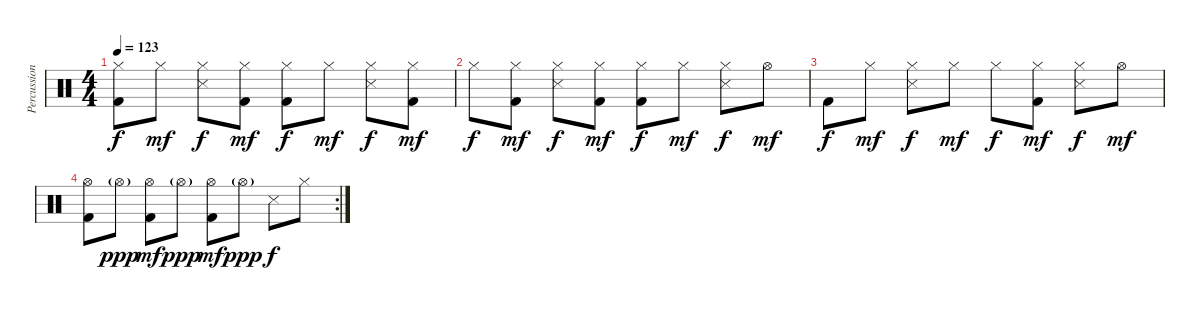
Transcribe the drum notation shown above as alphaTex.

\track ("Percussion" "Percussion") {instrument percussion}
\staff {score}
\articulation defaults
\ts (4 4)
\tempo 123
\clef neutral
\ks c
("Hi-Hat (closed)" "Kick (hit) 2").8{dy f} "Hi-Hat (closed)".8{dy mf} ("Hi-Hat (closed)" "Snare (side stick) 3").8{dy f} ("Hi-Hat (closed)" "Kick (hit) 2").8{dy mf} ("Hi-Hat (closed)" "Kick (hit) 2").8{dy f} "Hi-Hat (closed)".8{dy mf} ("Hi-Hat (closed)" "Snare (side stick) 3").8{dy f} ("Hi-Hat (closed)" "Kick (hit) 2").8{dy mf} |
"Hi-Hat (closed)".8{dy f} ("Hi-Hat (closed)" "Kick (hit) 2").8{dy mf} ("Hi-Hat (closed)" "Snare (side stick) 3").8{dy f} ("Hi-Hat (closed)" "Kick (hit) 2").8{dy mf} ("Hi-Hat (closed)" "Kick (hit) 2").8{dy f} "Hi-Hat (closed)".8{dy mf} ("Hi-Hat (closed)" "Snare (side stick) 3").8{dy f} "Hi-Hat (open)".8{dy mf} |
"Kick (hit) 2".8{dy f} "Hi-Hat (closed)".8{dy mf} ("Hi-Hat (closed)" "Snare (side stick) 3").8{dy f} "Hi-Hat (closed)".8{dy mf} "Hi-Hat (closed)".8{dy f} ("Hi-Hat (closed)" "Kick (hit) 2").8{dy mf} ("Hi-Hat (closed)" "Snare (side stick) 3").8{dy f} "Hi-Hat (open)".8{dy mf} |
\rc 2
("Hi-Hat (open)" "Kick (hit) 2").8 "Hi-Hat (open)"{g}.8{dy ppp} ("Hi-Hat (open)" "Kick (hit) 2").8{dy mf} "Hi-Hat (open)"{g}.8{dy ppp} ("Hi-Hat (open)" "Kick (hit) 2").8{dy mf} "Hi-Hat (open)"{g}.8{dy ppp} "Snare (side stick) 3".8{dy f} "Hi-Hat (closed)".8
